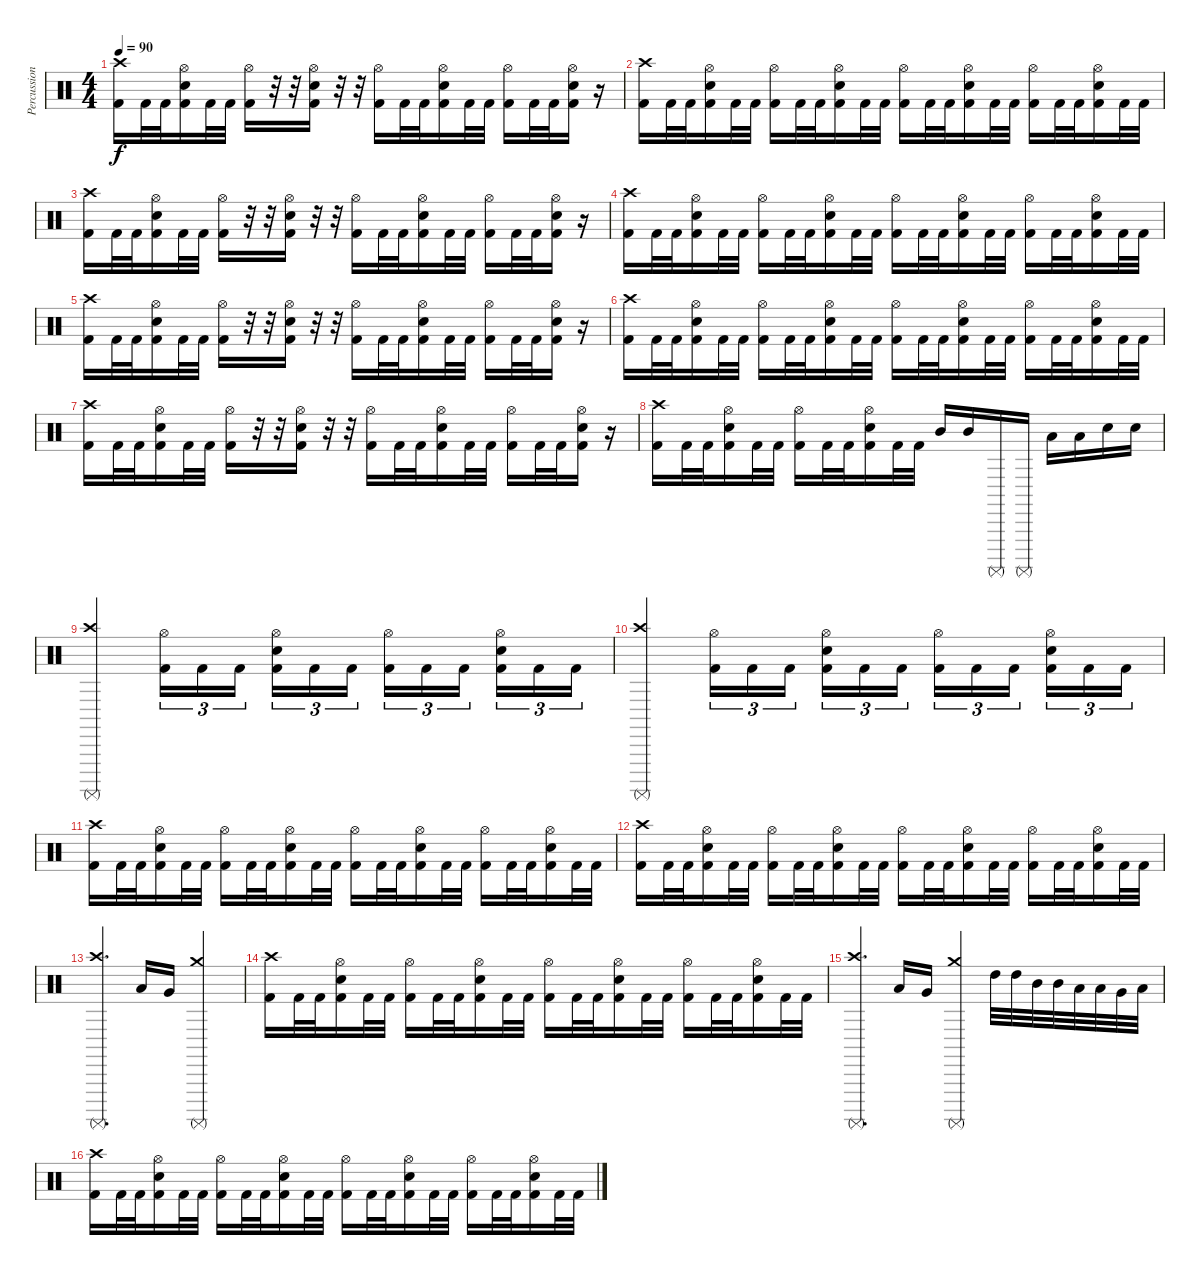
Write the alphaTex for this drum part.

\track ("Percussion" "Percussion") {instrument percussion}
\staff {score}
\articulation defaults
\ts (4 4)
\tempo 90
\clef neutral
\ks c
("Kick (hit) 2" "Crash high (hit)").16{dy f} "Kick (hit) 2".32 "Kick (hit) 2".32 ("Kick (hit) 2" "Electric Snare (hit)" "Hi-Hat (open)").16 "Kick (hit) 2".32 "Kick (hit) 2".32 ("Kick (hit) 2" "Hi-Hat (open)").16 r.32 r.32 ("Kick (hit) 2" "Electric Snare (hit)" "Hi-Hat (open)").16 r.32 r.32 ("Kick (hit) 2" "Hi-Hat (open)").16 "Kick (hit) 2".32 "Kick (hit) 2".32 ("Kick (hit) 2" "Electric Snare (hit)" "Hi-Hat (open)").16 "Kick (hit) 2".32 "Kick (hit) 2".32 ("Kick (hit) 2" "Hi-Hat (open)").16 "Kick (hit) 2".32 "Kick (hit) 2".32 ("Kick (hit) 2" "Electric Snare (hit)" "Hi-Hat (open)").16 r.16 |
("Kick (hit) 2" "Crash high (hit)").16 "Kick (hit) 2".32 "Kick (hit) 2".32 ("Kick (hit) 2" "Electric Snare (hit)" "Hi-Hat (open)").16 "Kick (hit) 2".32 "Kick (hit) 2".32 ("Kick (hit) 2" "Hi-Hat (open)").16 "Kick (hit) 2".32 "Kick (hit) 2".32 ("Kick (hit) 2" "Electric Snare (hit)" "Hi-Hat (open)").16 "Kick (hit) 2".32 "Kick (hit) 2".32 ("Kick (hit) 2" "Hi-Hat (open)").16 "Kick (hit) 2".32 "Kick (hit) 2".32 ("Kick (hit) 2" "Electric Snare (hit)" "Hi-Hat (open)").16 "Kick (hit) 2".32 "Kick (hit) 2".32 ("Kick (hit) 2" "Hi-Hat (open)").16 "Kick (hit) 2".32 "Kick (hit) 2".32 ("Kick (hit) 2" "Electric Snare (hit)" "Hi-Hat (open)").16 "Kick (hit) 2".32 "Kick (hit) 2".32 |
("Kick (hit) 2" "Crash high (hit)").16 "Kick (hit) 2".32 "Kick (hit) 2".32 ("Kick (hit) 2" "Electric Snare (hit)" "Hi-Hat (open)").16 "Kick (hit) 2".32 "Kick (hit) 2".32 ("Kick (hit) 2" "Hi-Hat (open)").16 r.32 r.32 ("Kick (hit) 2" "Electric Snare (hit)" "Hi-Hat (open)").16 r.32 r.32 ("Kick (hit) 2" "Hi-Hat (open)").16 "Kick (hit) 2".32 "Kick (hit) 2".32 ("Kick (hit) 2" "Electric Snare (hit)" "Hi-Hat (open)").16 "Kick (hit) 2".32 "Kick (hit) 2".32 ("Kick (hit) 2" "Hi-Hat (open)").16 "Kick (hit) 2".32 "Kick (hit) 2".32 ("Kick (hit) 2" "Electric Snare (hit)" "Hi-Hat (open)").16 r.16 |
("Kick (hit) 2" "Crash high (hit)").16 "Kick (hit) 2".32 "Kick (hit) 2".32 ("Kick (hit) 2" "Electric Snare (hit)" "Hi-Hat (open)").16 "Kick (hit) 2".32 "Kick (hit) 2".32 ("Kick (hit) 2" "Hi-Hat (open)").16 "Kick (hit) 2".32 "Kick (hit) 2".32 ("Kick (hit) 2" "Electric Snare (hit)" "Hi-Hat (open)").16 "Kick (hit) 2".32 "Kick (hit) 2".32 ("Kick (hit) 2" "Hi-Hat (open)").16 "Kick (hit) 2".32 "Kick (hit) 2".32 ("Kick (hit) 2" "Electric Snare (hit)" "Hi-Hat (open)").16 "Kick (hit) 2".32 "Kick (hit) 2".32 ("Kick (hit) 2" "Hi-Hat (open)").16 "Kick (hit) 2".32 "Kick (hit) 2".32 ("Kick (hit) 2" "Electric Snare (hit)" "Hi-Hat (open)").16 "Kick (hit) 2".32 "Kick (hit) 2".32 |
("Kick (hit) 2" "Crash high (hit)").16 "Kick (hit) 2".32 "Kick (hit) 2".32 ("Kick (hit) 2" "Electric Snare (hit)" "Hi-Hat (open)").16 "Kick (hit) 2".32 "Kick (hit) 2".32 ("Kick (hit) 2" "Hi-Hat (open)").16 r.32 r.32 ("Kick (hit) 2" "Electric Snare (hit)" "Hi-Hat (open)").16 r.32 r.32 ("Kick (hit) 2" "Hi-Hat (open)").16 "Kick (hit) 2".32 "Kick (hit) 2".32 ("Kick (hit) 2" "Electric Snare (hit)" "Hi-Hat (open)").16 "Kick (hit) 2".32 "Kick (hit) 2".32 ("Kick (hit) 2" "Hi-Hat (open)").16 "Kick (hit) 2".32 "Kick (hit) 2".32 ("Kick (hit) 2" "Electric Snare (hit)" "Hi-Hat (open)").16 r.16 |
("Kick (hit) 2" "Crash high (hit)").16 "Kick (hit) 2".32 "Kick (hit) 2".32 ("Kick (hit) 2" "Electric Snare (hit)" "Hi-Hat (open)").16 "Kick (hit) 2".32 "Kick (hit) 2".32 ("Kick (hit) 2" "Hi-Hat (open)").16 "Kick (hit) 2".32 "Kick (hit) 2".32 ("Kick (hit) 2" "Electric Snare (hit)" "Hi-Hat (open)").16 "Kick (hit) 2".32 "Kick (hit) 2".32 ("Kick (hit) 2" "Hi-Hat (open)").16 "Kick (hit) 2".32 "Kick (hit) 2".32 ("Kick (hit) 2" "Electric Snare (hit)" "Hi-Hat (open)").16 "Kick (hit) 2".32 "Kick (hit) 2".32 ("Kick (hit) 2" "Hi-Hat (open)").16 "Kick (hit) 2".32 "Kick (hit) 2".32 ("Kick (hit) 2" "Electric Snare (hit)" "Hi-Hat (open)").16 "Kick (hit) 2".32 "Kick (hit) 2".32 |
("Kick (hit) 2" "Crash high (hit)").16 "Kick (hit) 2".32 "Kick (hit) 2".32 ("Kick (hit) 2" "Electric Snare (hit)" "Hi-Hat (open)").16 "Kick (hit) 2".32 "Kick (hit) 2".32 ("Kick (hit) 2" "Hi-Hat (open)").16 r.32 r.32 ("Kick (hit) 2" "Electric Snare (hit)" "Hi-Hat (open)").16 r.32 r.32 ("Kick (hit) 2" "Hi-Hat (open)").16 "Kick (hit) 2".32 "Kick (hit) 2".32 ("Kick (hit) 2" "Electric Snare (hit)" "Hi-Hat (open)").16 "Kick (hit) 2".32 "Kick (hit) 2".32 ("Kick (hit) 2" "Hi-Hat (open)").16 "Kick (hit) 2".32 "Kick (hit) 2".32 ("Kick (hit) 2" "Electric Snare (hit)" "Hi-Hat (open)").16 r.16 |
("Kick (hit) 2" "Crash high (hit)").16 "Kick (hit) 2".32 "Kick (hit) 2".32 ("Kick (hit) 2" "Electric Snare (hit)" "Hi-Hat (open)").16 "Kick (hit) 2".32 "Kick (hit) 2".32 ("Kick (hit) 2" "Hi-Hat (open)").16 "Kick (hit) 2".32 "Kick (hit) 2".32 ("Kick (hit) 2" "Electric Snare (hit)" "Hi-Hat (open)").16 "Kick (hit) 2".32 "Kick (hit) 2".32 "Mid Tom (hit)".16 "Mid Tom (hit)".16 "Surdo (mute)".16 "Surdo (mute)".16 "Low Tom (hit)".16 "Low Tom (hit)".16 "Snare (hit) 2".16 "Snare (hit) 2".16 |
("Surdo (mute)" "Crash high (hit)").2 ("Kick (hit) 2" "Hi-Hat (open)").16{tu (3 2)} "Kick (hit) 2".16{tu (3 2)} "Kick (hit) 2".16{tu (3 2) beam splitsecondary} ("Kick (hit) 2" "Electric Snare (hit)" "Hi-Hat (open)").16{tu (3 2)} "Kick (hit) 2".16{tu (3 2)} "Kick (hit) 2".16{tu (3 2)} ("Kick (hit) 2" "Hi-Hat (open)").16{tu (3 2)} "Kick (hit) 2".16{tu (3 2)} "Kick (hit) 2".16{tu (3 2) beam splitsecondary} ("Kick (hit) 2" "Electric Snare (hit)" "Hi-Hat (open)").16{tu (3 2)} "Kick (hit) 2".16{tu (3 2)} "Kick (hit) 2".16{tu (3 2)} |
("Surdo (mute)" "Crash high (hit)").2 ("Kick (hit) 2" "Hi-Hat (open)").16{tu (3 2)} "Kick (hit) 2".16{tu (3 2)} "Kick (hit) 2".16{tu (3 2) beam splitsecondary} ("Kick (hit) 2" "Electric Snare (hit)" "Hi-Hat (open)").16{tu (3 2)} "Kick (hit) 2".16{tu (3 2)} "Kick (hit) 2".16{tu (3 2)} ("Kick (hit) 2" "Hi-Hat (open)").16{tu (3 2)} "Kick (hit) 2".16{tu (3 2)} "Kick (hit) 2".16{tu (3 2) beam splitsecondary} ("Kick (hit) 2" "Electric Snare (hit)" "Hi-Hat (open)").16{tu (3 2)} "Kick (hit) 2".16{tu (3 2)} "Kick (hit) 2".16{tu (3 2)} |
("Kick (hit) 2" "Crash high (hit)").16 "Kick (hit) 2".32 "Kick (hit) 2".32 ("Kick (hit) 2" "Electric Snare (hit)" "Hi-Hat (open)").16 "Kick (hit) 2".32 "Kick (hit) 2".32 ("Kick (hit) 2" "Hi-Hat (open)").16 "Kick (hit) 2".32 "Kick (hit) 2".32 ("Kick (hit) 2" "Electric Snare (hit)" "Hi-Hat (open)").16 "Kick (hit) 2".32 "Kick (hit) 2".32 ("Kick (hit) 2" "Hi-Hat (open)").16 "Kick (hit) 2".32 "Kick (hit) 2".32 ("Kick (hit) 2" "Electric Snare (hit)" "Hi-Hat (open)").16 "Kick (hit) 2".32 "Kick (hit) 2".32 ("Kick (hit) 2" "Hi-Hat (open)").16 "Kick (hit) 2".32 "Kick (hit) 2".32 ("Kick (hit) 2" "Electric Snare (hit)" "Hi-Hat (open)").16 "Kick (hit) 2".32 "Kick (hit) 2".32 |
("Kick (hit) 2" "Crash high (hit)").16 "Kick (hit) 2".32 "Kick (hit) 2".32 ("Kick (hit) 2" "Electric Snare (hit)" "Hi-Hat (open)").16 "Kick (hit) 2".32 "Kick (hit) 2".32 ("Kick (hit) 2" "Hi-Hat (open)").16 "Kick (hit) 2".32 "Kick (hit) 2".32 ("Kick (hit) 2" "Electric Snare (hit)" "Hi-Hat (open)").16 "Kick (hit) 2".32 "Kick (hit) 2".32 ("Kick (hit) 2" "Hi-Hat (open)").16 "Kick (hit) 2".32 "Kick (hit) 2".32 ("Kick (hit) 2" "Electric Snare (hit)" "Hi-Hat (open)").16 "Kick (hit) 2".32 "Kick (hit) 2".32 ("Kick (hit) 2" "Hi-Hat (open)").16 "Kick (hit) 2".32 "Kick (hit) 2".32 ("Kick (hit) 2" "Electric Snare (hit)" "Hi-Hat (open)").16 "Kick (hit) 2".32 "Kick (hit) 2".32 |
("Surdo (mute)" "Crash high (hit)").4{d} "Low Tom (hit)".16 "Very Low Tom (hit)".16 ("Surdo (mute)" "Crash medium (hit)").2 |
("Kick (hit) 2" "Crash high (hit)").16 "Kick (hit) 2".32 "Kick (hit) 2".32 ("Kick (hit) 2" "Electric Snare (hit)" "Hi-Hat (open)").16 "Kick (hit) 2".32 "Kick (hit) 2".32 ("Kick (hit) 2" "Hi-Hat (open)").16 "Kick (hit) 2".32 "Kick (hit) 2".32 ("Kick (hit) 2" "Electric Snare (hit)" "Hi-Hat (open)").16 "Kick (hit) 2".32 "Kick (hit) 2".32 ("Kick (hit) 2" "Hi-Hat (open)").16 "Kick (hit) 2".32 "Kick (hit) 2".32 ("Kick (hit) 2" "Electric Snare (hit)" "Hi-Hat (open)").16 "Kick (hit) 2".32 "Kick (hit) 2".32 ("Kick (hit) 2" "Hi-Hat (open)").16 "Kick (hit) 2".32 "Kick (hit) 2".32 ("Kick (hit) 2" "Electric Snare (hit)" "Hi-Hat (open)").16 "Kick (hit) 2".32 "Kick (hit) 2".32 |
("Surdo (mute)" "Crash high (hit)").4{d} "Low Tom (hit)".16 "Very Low Tom (hit)".16 ("Surdo (mute)" "Crash medium (hit)").4 "High Tom (hit)".32 "High Tom (hit)".32 "Mid Tom (hit)".32 "Mid Tom (hit)".32 "Low Tom (hit)".32 "Low Tom (hit)".32 "Very Low Tom (hit)".32 "Low Floor Tom (hit)".32 |
("Kick (hit) 2" "Crash high (hit)").16 "Kick (hit) 2".32 "Kick (hit) 2".32 ("Kick (hit) 2" "Electric Snare (hit)" "Hi-Hat (open)").16 "Kick (hit) 2".32 "Kick (hit) 2".32 ("Kick (hit) 2" "Hi-Hat (open)").16 "Kick (hit) 2".32 "Kick (hit) 2".32 ("Kick (hit) 2" "Electric Snare (hit)" "Hi-Hat (open)").16 "Kick (hit) 2".32 "Kick (hit) 2".32 ("Kick (hit) 2" "Hi-Hat (open)").16 "Kick (hit) 2".32 "Kick (hit) 2".32 ("Kick (hit) 2" "Electric Snare (hit)" "Hi-Hat (open)").16 "Kick (hit) 2".32 "Kick (hit) 2".32 ("Kick (hit) 2" "Hi-Hat (open)").16 "Kick (hit) 2".32 "Kick (hit) 2".32 ("Kick (hit) 2" "Electric Snare (hit)" "Hi-Hat (open)").16 "Kick (hit) 2".32 "Kick (hit) 2".32
